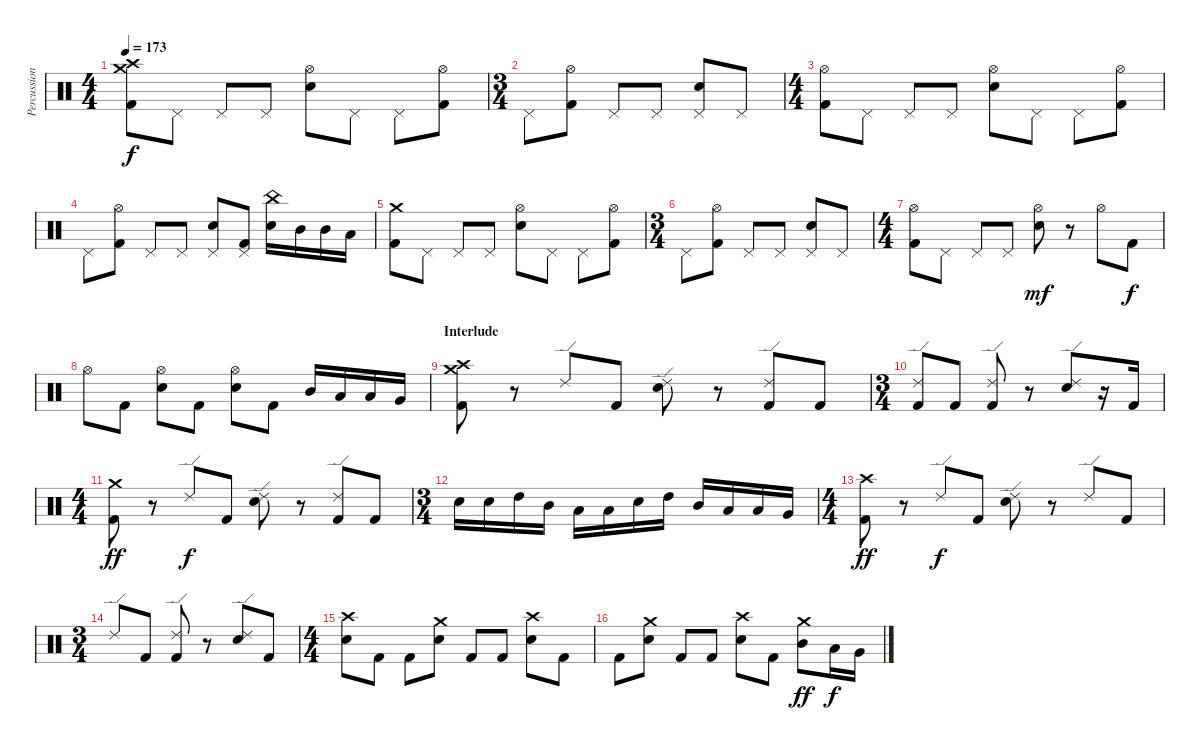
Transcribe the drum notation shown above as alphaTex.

\track ("Percussions" "Percussion") {instrument percussion}
\staff {score}
\articulation defaults
\ts (4 4)
\tempo 173
\clef neutral
\ks c
("Crash high (hit)" "Crash medium (hit)" "Kick (hit) 2").8{dy f} "Pedal Hi-Hat (hit)".8 "Pedal Hi-Hat (hit)".8 "Pedal Hi-Hat (hit)".8 ("Hi-Hat (open)" "Electric Snare (hit)").8 "Pedal Hi-Hat (hit)".8 "Pedal Hi-Hat (hit)".8 ("Hi-Hat (open)" "Kick (hit) 2").8 |
\ts (3 4)
"Pedal Hi-Hat (hit)".8 ("Hi-Hat (open)" "Kick (hit) 2").8 "Pedal Hi-Hat (hit)".8 "Pedal Hi-Hat (hit)".8 ("Pedal Hi-Hat (hit)" "Electric Snare (hit)").8 "Pedal Hi-Hat (hit)".8 |
\ts (4 4)
("Hi-Hat (open)" "Kick (hit) 2").8 "Pedal Hi-Hat (hit)".8 "Pedal Hi-Hat (hit)".8 "Pedal Hi-Hat (hit)".8 ("Hi-Hat (open)" "Electric Snare (hit)").8 "Pedal Hi-Hat (hit)".8 "Pedal Hi-Hat (hit)".8 ("Hi-Hat (open)" "Kick (hit) 2").8 |
"Pedal Hi-Hat (hit)".8 ("Hi-Hat (open)" "Kick (hit) 2").8 "Pedal Hi-Hat (hit)".8 "Pedal Hi-Hat (hit)".8 ("Pedal Hi-Hat (hit)" "Electric Snare (hit)").8 ("Pedal Hi-Hat (hit)" "Kick (hit) 2").8 ("China (hit)" "Electric Snare (hit)").16 "Mid Tom (hit)".16 "Mid Tom (hit)".16 "Low Tom (hit)".16 |
("Crash medium (hit)" "Kick (hit) 2").8 "Pedal Hi-Hat (hit)".8 "Pedal Hi-Hat (hit)".8 "Pedal Hi-Hat (hit)".8 ("Hi-Hat (open)" "Electric Snare (hit)").8 "Pedal Hi-Hat (hit)".8 "Pedal Hi-Hat (hit)".8 ("Hi-Hat (open)" "Kick (hit) 2").8 |
\ts (3 4)
"Pedal Hi-Hat (hit)".8 ("Hi-Hat (open)" "Kick (hit) 2").8 "Pedal Hi-Hat (hit)".8 "Pedal Hi-Hat (hit)".8 ("Pedal Hi-Hat (hit)" "Electric Snare (hit)").8 "Pedal Hi-Hat (hit)".8 |
\ts (4 4)
("Hi-Hat (open)" "Kick (hit) 2").8 "Pedal Hi-Hat (hit)".8 "Pedal Hi-Hat (hit)".8 "Pedal Hi-Hat (hit)".8 ("Hi-Hat (open)" "Electric Snare (hit)").8{dy mf} r.8 "Hi-Hat (open)".8 "Kick (hit) 2".8{dy f} |
"Hi-Hat (open)".8 "Kick (hit) 2".8 ("Hi-Hat (open)" "Electric Snare (hit)").8 "Kick (hit) 2".8 ("Hi-Hat (open)" "Electric Snare (hit)").8 "Kick (hit) 2".8 "Mid Tom (hit)".16 "Low Tom (hit)".16 "Low Tom (hit)".16 "Very Low Tom (hit)".16 |
\section ("" "Interlude")
("Crash high (hit)" "Crash medium (hit)" "Kick (hit) 2").8 r.8 "Ride (edge) 2".8 "Kick (hit) 2".8 ("Ride (edge) 2" "Electric Snare (hit)").8 r.8 ("Ride (edge) 2" "Kick (hit) 2").8 "Kick (hit) 2".8 |
\ts (3 4)
("Ride (edge) 2" "Kick (hit) 2").8 "Kick (hit) 2".8 ("Ride (edge) 2" "Kick (hit) 2").8 r.8 ("Ride (edge) 2" "Electric Snare (hit)").8 r.16 "Kick (hit) 2".16 |
\ts (4 4)
("Crash medium (hit)" "Kick (hit) 2").8{dy ff} r.8 "Ride (edge) 2".8{dy f} "Kick (hit) 2".8 ("Ride (edge) 2" "Electric Snare (hit)").8 r.8 ("Ride (edge) 2" "Kick (hit) 2").8 "Kick (hit) 2".8 |
\ts (3 4)
"Electric Snare (hit)".16 "Electric Snare (hit)".16 "High Tom (hit)".16 "Mid Tom (hit)".16 "Low Tom (hit)".16 "Low Tom (hit)".16 "Electric Snare (hit)".16 "High Tom (hit)".16 "Mid Tom (hit)".16 "Low Tom (hit)".16 "Low Tom (hit)".16 "Very Low Tom (hit)".16 |
\ts (4 4)
("Crash high (hit)" "Kick (hit) 2").8{dy ff} r.8 "Ride (edge) 2".8{dy f} "Kick (hit) 2".8 ("Ride (edge) 2" "Electric Snare (hit)").8 r.8 "Ride (edge) 2".8 "Kick (hit) 2".8 |
\ts (3 4)
"Ride (edge) 2".8 "Kick (hit) 2".8 ("Ride (edge) 2" "Kick (hit) 2").8 r.8 ("Ride (edge) 2" "Electric Snare (hit)").8 "Kick (hit) 2".8 |
\ts (4 4)
("Crash high (hit)" "Electric Snare (hit)").8 "Kick (hit) 2".8 "Kick (hit) 2".8 ("Crash medium (hit)" "Electric Snare (hit)").8 "Kick (hit) 2".8 "Kick (hit) 2".8 ("Crash high (hit)" "Electric Snare (hit)").8 "Kick (hit) 2".8 |
"Kick (hit) 2".8 ("Crash medium (hit)" "Electric Snare (hit)").8 "Kick (hit) 2".8 "Kick (hit) 2".8 ("Crash high (hit)" "Electric Snare (hit)").8 "Kick (hit) 2".8 ("Crash medium (hit)" "Mid Tom (hit)").8{dy ff} "Low Tom (hit)".16{dy f} "Very Low Tom (hit)".16
